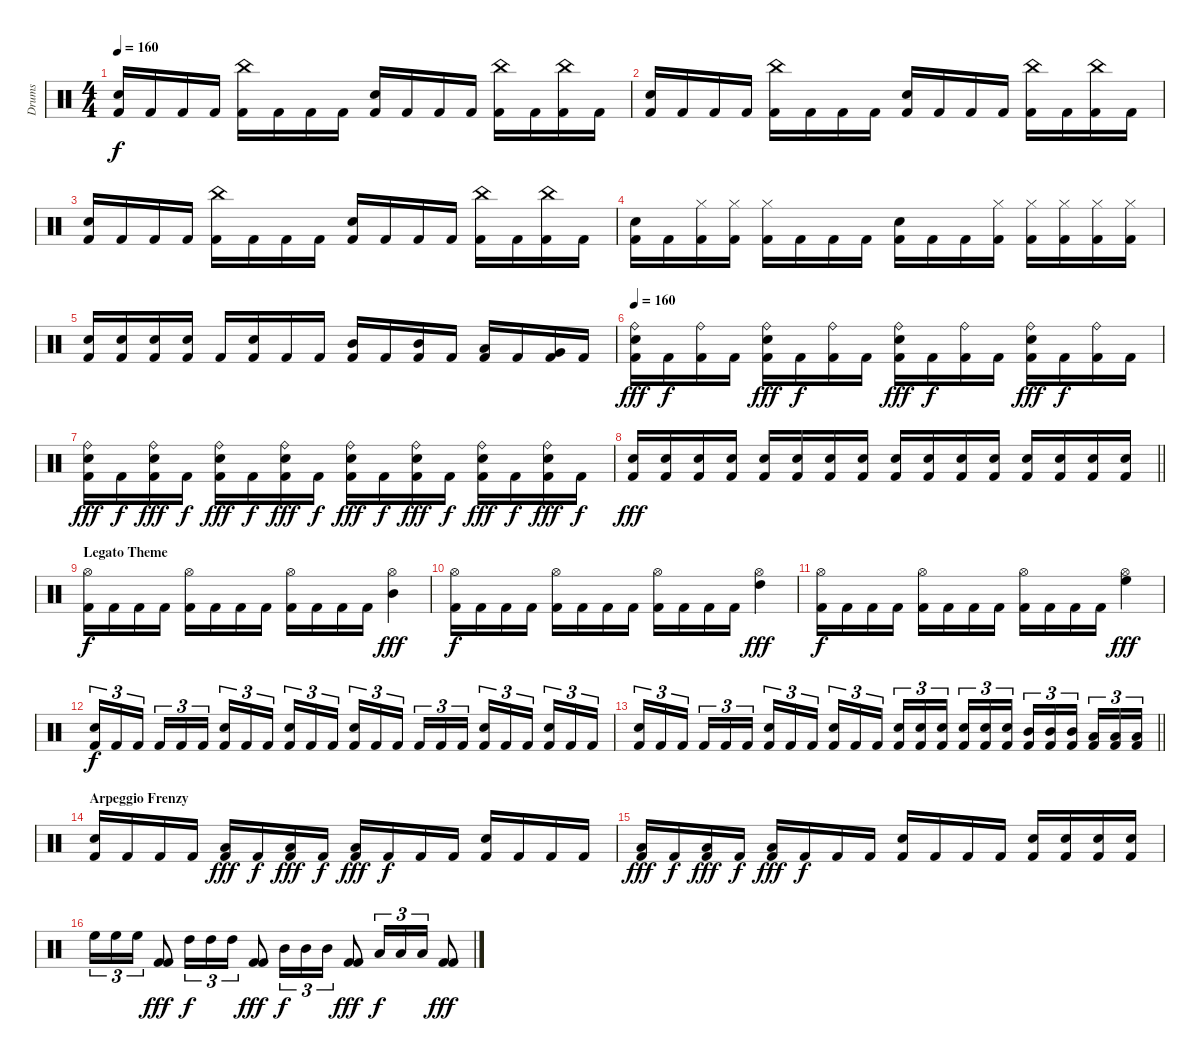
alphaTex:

\track ("Drums" "Drums") {instrument percussion}
\staff {score}
\articulation defaults
\ts (4 4)
\tempo 160
\clef neutral
\ks c
("Electric Snare (hit)" "Kick (hit) 2").16{dy f} "Kick (hit) 2".16 "Kick (hit) 2".16 "Kick (hit) 2".16 ("China (hit)" "Kick (hit) 2").16 "Kick (hit) 2".16 "Kick (hit) 2".16 "Kick (hit) 2".16 ("Electric Snare (hit)" "Kick (hit) 2").16 "Kick (hit) 2".16 "Kick (hit) 2".16 "Kick (hit) 2".16 ("China (hit)" "Kick (hit) 2").16 "Kick (hit) 2".16 ("China (hit)" "Kick (hit) 2").16 "Kick (hit) 2".16 |
("Electric Snare (hit)" "Kick (hit) 2").16 "Kick (hit) 2".16 "Kick (hit) 2".16 "Kick (hit) 2".16 ("China (hit)" "Kick (hit) 2").16 "Kick (hit) 2".16 "Kick (hit) 2".16 "Kick (hit) 2".16 ("Electric Snare (hit)" "Kick (hit) 2").16 "Kick (hit) 2".16 "Kick (hit) 2".16 "Kick (hit) 2".16 ("China (hit)" "Kick (hit) 2").16 "Kick (hit) 2".16 ("China (hit)" "Kick (hit) 2").16 "Kick (hit) 2".16 |
("Electric Snare (hit)" "Kick (hit) 2").16 "Kick (hit) 2".16 "Kick (hit) 2".16 "Kick (hit) 2".16 ("China (hit)" "Kick (hit) 2").16 "Kick (hit) 2".16 "Kick (hit) 2".16 "Kick (hit) 2".16 ("Electric Snare (hit)" "Kick (hit) 2").16 "Kick (hit) 2".16 "Kick (hit) 2".16 "Kick (hit) 2".16 ("China (hit)" "Kick (hit) 2").16 "Kick (hit) 2".16 ("China (hit)" "Kick (hit) 2").16 "Kick (hit) 2".16 |
("Electric Snare (hit)" "Kick (hit) 2").16 "Kick (hit) 2".16 ("Hi-Hat (closed)" "Kick (hit) 2").16 ("Hi-Hat (closed)" "Kick (hit) 2").16 ("Hi-Hat (closed)" "Kick (hit) 2").16 "Kick (hit) 2".16 "Kick (hit) 2".16 "Kick (hit) 2".16 ("Electric Snare (hit)" "Kick (hit) 2").16 "Kick (hit) 2".16 "Kick (hit) 2".16 ("Hi-Hat (closed)" "Kick (hit) 2").16 ("Hi-Hat (closed)" "Kick (hit) 2").16 ("Hi-Hat (closed)" "Kick (hit) 2").16 ("Hi-Hat (closed)" "Kick (hit) 2").16 ("Hi-Hat (closed)" "Kick (hit) 2").16 |
("Electric Snare (hit)" "Kick (hit) 2").16 ("Electric Snare (hit)" "Kick (hit) 2").16 ("Electric Snare (hit)" "Kick (hit) 2").16 ("Electric Snare (hit)" "Kick (hit) 2").16 "Kick (hit) 2".16 ("Electric Snare (hit)" "Kick (hit) 2").16 "Kick (hit) 2".16 "Kick (hit) 2".16 ("Mid Tom (hit)" "Kick (hit) 2").16 "Kick (hit) 2".16 ("Mid Tom (hit)" "Kick (hit) 2").16 "Kick (hit) 2".16 ("Low Tom (hit)" "Kick (hit) 2").16 "Kick (hit) 2".16 ("Very Low Tom (hit)" "Kick (hit) 2").16 "Kick (hit) 2".16 |
\tempo 160
("Ride (bell)" "Electric Snare (hit)" "Kick (hit) 2").16{dy fff} "Kick (hit) 2".16{dy f} ("Ride (bell)" "Kick (hit) 2").16 "Kick (hit) 2".16 ("Ride (bell)" "Electric Snare (hit)" "Kick (hit) 2").16{dy fff} "Kick (hit) 2".16{dy f} ("Ride (bell)" "Kick (hit) 2").16 "Kick (hit) 2".16 ("Ride (bell)" "Electric Snare (hit)" "Kick (hit) 2").16{dy fff} "Kick (hit) 2".16{dy f} ("Ride (bell)" "Kick (hit) 2").16 "Kick (hit) 2".16 ("Ride (bell)" "Electric Snare (hit)" "Kick (hit) 2").16{dy fff} "Kick (hit) 2".16{dy f} ("Ride (bell)" "Kick (hit) 2").16 "Kick (hit) 2".16 |
("Ride (bell)" "Electric Snare (hit)" "Kick (hit) 2").16{dy fff} "Kick (hit) 2".16{dy f} ("Ride (bell)" "Electric Snare (hit)" "Kick (hit) 2").16{dy fff} "Kick (hit) 2".16{dy f} ("Ride (bell)" "Electric Snare (hit)" "Kick (hit) 2").16{dy fff} "Kick (hit) 2".16{dy f} ("Ride (bell)" "Electric Snare (hit)" "Kick (hit) 2").16{dy fff} "Kick (hit) 2".16{dy f} ("Ride (bell)" "Electric Snare (hit)" "Kick (hit) 2").16{dy fff} "Kick (hit) 2".16{dy f} ("Ride (bell)" "Electric Snare (hit)" "Kick (hit) 2").16{dy fff} "Kick (hit) 2".16{dy f} ("Ride (bell)" "Electric Snare (hit)" "Kick (hit) 2").16{dy fff} "Kick (hit) 2".16{dy f} ("Ride (bell)" "Electric Snare (hit)" "Kick (hit) 2").16{dy fff} "Kick (hit) 2".16{dy f} |
\barLineRight lightlight
("Electric Snare (hit)" "Kick (hit) 2").16{dy fff} ("Electric Snare (hit)" "Kick (hit) 2").16 ("Electric Snare (hit)" "Kick (hit) 2").16 ("Electric Snare (hit)" "Kick (hit) 2").16 ("Electric Snare (hit)" "Kick (hit) 2").16 ("Electric Snare (hit)" "Kick (hit) 2").16 ("Electric Snare (hit)" "Kick (hit) 2").16 ("Electric Snare (hit)" "Kick (hit) 2").16 ("Electric Snare (hit)" "Kick (hit) 2").16 ("Electric Snare (hit)" "Kick (hit) 2").16 ("Electric Snare (hit)" "Kick (hit) 2").16 ("Electric Snare (hit)" "Kick (hit) 2").16 ("Electric Snare (hit)" "Kick (hit) 2").16 ("Electric Snare (hit)" "Kick (hit) 2").16 ("Electric Snare (hit)" "Kick (hit) 2").16 ("Electric Snare (hit)" "Kick (hit) 2").16 |
\section ("" "Legato Theme")
("Hi-Hat (open)" "Kick (hit) 2").16{dy f} "Kick (hit) 2".16 "Kick (hit) 2".16 "Kick (hit) 2".16 ("Hi-Hat (open)" "Kick (hit) 2").16 "Kick (hit) 2".16 "Kick (hit) 2".16 "Kick (hit) 2".16 ("Hi-Hat (open)" "Kick (hit) 2").16 "Kick (hit) 2".16 "Kick (hit) 2".16 "Kick (hit) 2".16 ("Hi-Hat (open)" "Mid Tom (hit)").4{dy fff} |
("Hi-Hat (open)" "Kick (hit) 2").16{dy f} "Kick (hit) 2".16 "Kick (hit) 2".16 "Kick (hit) 2".16 ("Hi-Hat (open)" "Kick (hit) 2").16 "Kick (hit) 2".16 "Kick (hit) 2".16 "Kick (hit) 2".16 ("Hi-Hat (open)" "Kick (hit) 2").16 "Kick (hit) 2".16 "Kick (hit) 2".16 "Kick (hit) 2".16 ("Hi-Hat (open)" "High Tom (hit)").4{dy fff} |
("Hi-Hat (open)" "Kick (hit) 2").16{dy f} "Kick (hit) 2".16 "Kick (hit) 2".16 "Kick (hit) 2".16 ("Hi-Hat (open)" "Kick (hit) 2").16 "Kick (hit) 2".16 "Kick (hit) 2".16 "Kick (hit) 2".16 ("Hi-Hat (open)" "Kick (hit) 2").16 "Kick (hit) 2".16 "Kick (hit) 2".16 "Kick (hit) 2".16 ("Hi-Hat (open)" "High Floor Tom (hit)").4{dy fff} |
("Electric Snare (hit)" "Kick (hit) 2").16{tu (3 2) dy f} "Kick (hit) 2".16{tu (3 2)} "Kick (hit) 2".16{tu (3 2)} "Kick (hit) 2".16{tu (3 2)} "Kick (hit) 2".16{tu (3 2)} "Kick (hit) 2".16{tu (3 2)} ("Electric Snare (hit)" "Kick (hit) 2").16{tu (3 2)} "Kick (hit) 2".16{tu (3 2)} "Kick (hit) 2".16{tu (3 2)} ("Electric Snare (hit)" "Kick (hit) 2").16{tu (3 2)} "Kick (hit) 2".16{tu (3 2)} "Kick (hit) 2".16{tu (3 2)} ("Electric Snare (hit)" "Kick (hit) 2").16{tu (3 2)} "Kick (hit) 2".16{tu (3 2)} "Kick (hit) 2".16{tu (3 2)} "Kick (hit) 2".16{tu (3 2)} "Kick (hit) 2".16{tu (3 2)} "Kick (hit) 2".16{tu (3 2)} ("Electric Snare (hit)" "Kick (hit) 2").16{tu (3 2)} "Kick (hit) 2".16{tu (3 2)} "Kick (hit) 2".16{tu (3 2)} ("Electric Snare (hit)" "Kick (hit) 2").16{tu (3 2)} "Kick (hit) 2".16{tu (3 2)} "Kick (hit) 2".16{tu (3 2)} |
\barLineRight lightlight
("Electric Snare (hit)" "Kick (hit) 2").16{tu (3 2)} "Kick (hit) 2".16{tu (3 2)} "Kick (hit) 2".16{tu (3 2)} "Kick (hit) 2".16{tu (3 2)} "Kick (hit) 2".16{tu (3 2)} "Kick (hit) 2".16{tu (3 2)} ("Electric Snare (hit)" "Kick (hit) 2").16{tu (3 2)} "Kick (hit) 2".16{tu (3 2)} "Kick (hit) 2".16{tu (3 2)} ("Electric Snare (hit)" "Kick (hit) 2").16{tu (3 2)} "Kick (hit) 2".16{tu (3 2)} "Kick (hit) 2".16{tu (3 2)} ("Electric Snare (hit)" "Kick (hit) 2").16{tu (3 2)} ("Electric Snare (hit)" "Kick (hit) 2").16{tu (3 2)} ("Electric Snare (hit)" "Kick (hit) 2").16{tu (3 2)} ("Electric Snare (hit)" "Kick (hit) 2").16{tu (3 2)} ("Electric Snare (hit)" "Kick (hit) 2").16{tu (3 2)} ("Electric Snare (hit)" "Kick (hit) 2").16{tu (3 2)} ("Mid Tom (hit)" "Kick (hit) 2").16{tu (3 2)} ("Mid Tom (hit)" "Kick (hit) 2").16{tu (3 2)} ("Mid Tom (hit)" "Kick (hit) 2").16{tu (3 2)} ("Low Tom (hit)" "Kick (hit) 2").16{tu (3 2)} ("Low Tom (hit)" "Kick (hit) 2").16{tu (3 2)} ("Low Tom (hit)" "Kick (hit) 2").16{tu (3 2)} |
\section ("" "Arpeggio Frenzy")
("Electric Snare (hit)" "Kick (hit) 2").16 "Kick (hit) 2".16 "Kick (hit) 2".16 "Kick (hit) 2".16 ("Low Tom (hit)" "Kick (hit) 2").16{dy fff} "Kick (hit) 2".16{dy f} ("Low Tom (hit)" "Kick (hit) 2").16{dy fff} "Kick (hit) 2".16{dy f} ("Low Tom (hit)" "Kick (hit) 2").16{dy fff} "Kick (hit) 2".16{dy f} "Kick (hit) 2".16 "Kick (hit) 2".16 ("Electric Snare (hit)" "Kick (hit) 2").16 "Kick (hit) 2".16 "Kick (hit) 2".16 "Kick (hit) 2".16 |
("Low Tom (hit)" "Kick (hit) 2").16{dy fff} "Kick (hit) 2".16{dy f} ("Low Tom (hit)" "Kick (hit) 2").16{dy fff} "Kick (hit) 2".16{dy f} ("Low Tom (hit)" "Kick (hit) 2").16{dy fff} "Kick (hit) 2".16{dy f} "Kick (hit) 2".16 "Kick (hit) 2".16 ("Electric Snare (hit)" "Kick (hit) 2").16 "Kick (hit) 2".16 "Kick (hit) 2".16 "Kick (hit) 2".16 ("Electric Snare (hit)" "Kick (hit) 2").16 ("Electric Snare (hit)" "Kick (hit) 2").16 ("Electric Snare (hit)" "Kick (hit) 2").16 ("Electric Snare (hit)" "Kick (hit) 2").16 |
"High Floor Tom (hit)".16{tu (3 2)} "High Floor Tom (hit)".16{tu (3 2)} "High Floor Tom (hit)".16{tu (3 2)} ("Kick (hit) 2" "Kick (hit) 2").8{dy fff} "High Tom (hit)".16{tu (3 2) dy f} "High Tom (hit)".16{tu (3 2)} "High Tom (hit)".16{tu (3 2)} ("Kick (hit) 2" "Kick (hit) 2").8{dy fff} "Mid Tom (hit)".16{tu (3 2) dy f} "Mid Tom (hit)".16{tu (3 2)} "Mid Tom (hit)".16{tu (3 2)} ("Kick (hit) 2" "Kick (hit) 2").8{dy fff} "Low Tom (hit)".16{tu (3 2) dy f} "Low Tom (hit)".16{tu (3 2)} "Low Tom (hit)".16{tu (3 2)} ("Kick (hit) 2" "Kick (hit) 2").8{dy fff}
